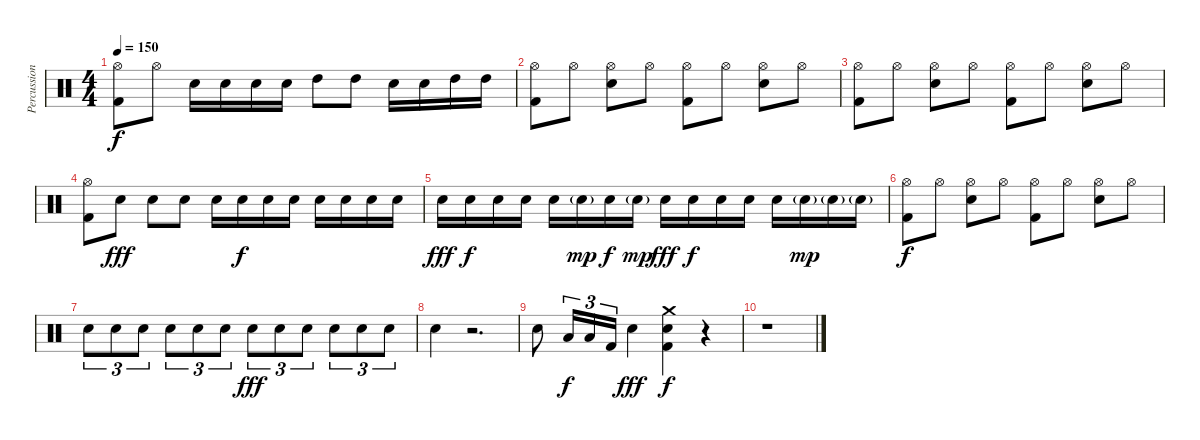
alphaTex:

\track ("Percussions" "Percussion") {instrument percussion}
\staff {score}
\articulation defaults
\ts (4 4)
\tempo 150
\clef neutral
\ks c
("Hi-Hat (open)" "Kick (hit) 2").8{dy f} "Hi-Hat (open)".8 "Snare (hit) 2".16 "Snare (hit) 2".16 "Snare (hit) 2".16 "Snare (hit) 2".16 "High Tom (hit)".8 "High Tom (hit)".8 "Snare (hit) 2".16 "Snare (hit) 2".16 "High Tom (hit)".16 "High Tom (hit)".16 |
("Hi-Hat (open)" "Kick (hit) 2").8 "Hi-Hat (open)".8 ("Hi-Hat (open)" "Snare (hit) 2").8 "Hi-Hat (open)".8 ("Hi-Hat (open)" "Kick (hit) 2").8 "Hi-Hat (open)".8 ("Hi-Hat (open)" "Snare (hit) 2").8 "Hi-Hat (open)".8 |
("Hi-Hat (open)" "Kick (hit) 2").8 "Hi-Hat (open)".8 ("Hi-Hat (open)" "Snare (hit) 2").8 "Hi-Hat (open)".8 ("Hi-Hat (open)" "Kick (hit) 2").8 "Hi-Hat (open)".8 ("Hi-Hat (open)" "Snare (hit) 2").8 "Hi-Hat (open)".8 |
("Hi-Hat (open)" "Kick (hit) 2").8 "Snare (hit) 2".8{dy fff} "Snare (hit) 2".8 "Snare (hit) 2".8 "Snare (hit) 2".16 "Snare (hit) 2".16{dy f} "Snare (hit) 2".16 "Snare (hit) 2".16 "Snare (hit) 2".16 "Snare (hit) 2".16 "Snare (hit) 2".16 "Snare (hit) 2".16 |
"Snare (hit) 2".16{dy fff} "Snare (hit) 2".16{dy f} "Snare (hit) 2".16 "Snare (hit) 2".16 "Snare (hit) 2".16 "Snare (hit) 2"{g}.16{dy mp} "Snare (hit) 2".16{dy f} "Snare (hit) 2"{g}.16{dy mp} "Snare (hit) 2".16{dy fff} "Snare (hit) 2".16{dy f} "Snare (hit) 2".16 "Snare (hit) 2".16 "Snare (hit) 2".16 "Snare (hit) 2"{g}.16{dy mp} "Snare (hit) 2"{g}.16 "Snare (hit) 2"{g}.16 |
("Hi-Hat (open)" "Kick (hit) 2").8{dy f} "Hi-Hat (open)".8 ("Hi-Hat (open)" "Snare (hit) 2").8 "Hi-Hat (open)".8 ("Hi-Hat (open)" "Kick (hit) 2").8 "Hi-Hat (open)".8 ("Hi-Hat (open)" "Snare (hit) 2").8 "Hi-Hat (open)".8 |
"Snare (hit) 2".8{tu (3 2)} "Snare (hit) 2".8{tu (3 2)} "Snare (hit) 2".8{tu (3 2)} "Snare (hit) 2".8{tu (3 2)} "Snare (hit) 2".8{tu (3 2)} "Snare (hit) 2".8{tu (3 2)} "Snare (hit) 2".8{tu (3 2) dy fff} "Snare (hit) 2".8{tu (3 2)} "Snare (hit) 2".8{tu (3 2)} "Snare (hit) 2".8{tu (3 2)} "Snare (hit) 2".8{tu (3 2)} "Snare (hit) 2".8{tu (3 2)} |
"Snare (hit) 2".4 r.2{d} |
"Snare (hit) 2".8 "Low Tom (hit)".16{tu (3 2) dy f} "Low Tom (hit)".16{tu (3 2)} "Kick (hit) 2".16{tu (3 2)} "Snare (hit) 2".4{dy fff} ("Crash medium (hit)" "Snare (hit) 2" "Kick (hit) 2").4{dy f} r.4 |
r.1
